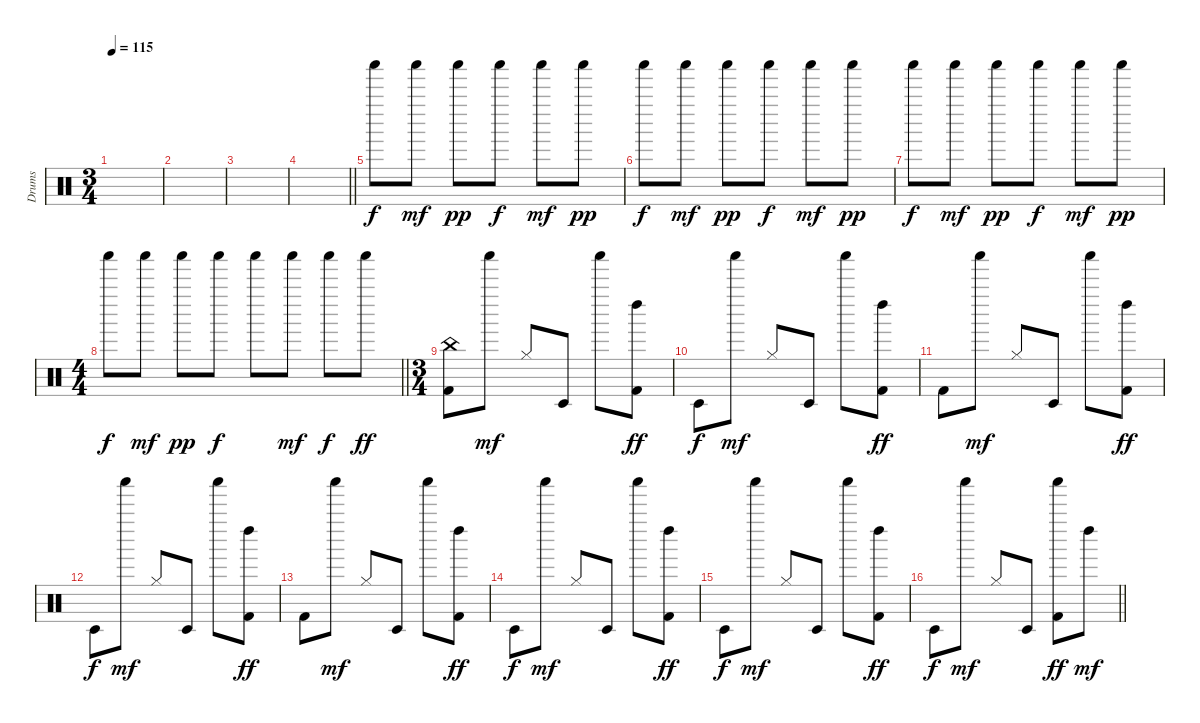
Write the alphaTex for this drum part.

\track ("Drums" "Drums") {instrument percussion}
\staff {score}
\articulation defaults
\ts (3 4)
\tempo 115
\clef neutral
\ks c
|
|
|
\barLineRight lightlight
|
\section ("" "")
"Shaker (hit)".8{dy f} "Shaker (hit)".8{dy mf} "Shaker (hit)".8{dy pp} "Shaker (hit)".8{dy f} "Shaker (hit)".8{dy mf} "Shaker (hit)".8{dy pp} |
"Shaker (hit)".8{dy f} "Shaker (hit)".8{dy mf} "Shaker (hit)".8{dy pp} "Shaker (hit)".8{dy f} "Shaker (hit)".8{dy mf} "Shaker (hit)".8{dy pp} |
"Shaker (hit)".8{dy f} "Shaker (hit)".8{dy mf} "Shaker (hit)".8{dy pp} "Shaker (hit)".8{dy f} "Shaker (hit)".8{dy mf} "Shaker (hit)".8{dy pp} |
\ts (4 4)
\barLineRight lightlight "Shaker (hit)".8{dy f} "Shaker (hit)".8{dy mf} "Shaker (hit)".8{dy pp} "Shaker (hit)".8{dy f} "Shaker (hit)".8 "Shaker (hit)".8{dy mf} "Shaker (hit)".8{dy f} "Shaker (hit)".8{dy ff}
|
\ts (3 4)
\section ("" "")
("China (hit)" "Kick (hit) 2").8 "Shaker (hit)".8{dy mf} "Hi-Hat (closed)".8 "Timbale low (hit)".8 "Shaker (hit)".8 ("Left Maraca (hit)" "Kick (hit) 2").8{dy ff} |
"Timbale low (hit)".8{dy f} "Shaker (hit)".8{dy mf} "Hi-Hat (closed)".8 "Timbale low (hit)".8 "Shaker (hit)".8 ("Left Maraca (hit)" "Kick (hit) 2").8{dy ff} |
"Kick (hit) 2".8 "Shaker (hit)".8{dy mf} "Hi-Hat (closed)".8 "Timbale low (hit)".8 "Shaker (hit)".8 ("Left Maraca (hit)" "Kick (hit) 2").8{dy ff} |
"Timbale low (hit)".8{dy f} "Shaker (hit)".8{dy mf} "Hi-Hat (closed)".8 "Timbale low (hit)".8 "Shaker (hit)".8 ("Left Maraca (hit)" "Kick (hit) 2").8{dy ff} |
"Kick (hit) 2".8 "Shaker (hit)".8{dy mf} "Hi-Hat (closed)".8 "Timbale low (hit)".8 "Shaker (hit)".8 ("Left Maraca (hit)" "Kick (hit) 2").8{dy ff} |
"Timbale low (hit)".8{dy f} "Shaker (hit)".8{dy mf} "Hi-Hat (closed)".8 "Timbale low (hit)".8 "Shaker (hit)".8 ("Left Maraca (hit)" "Kick (hit) 2").8{dy ff} |
"Timbale low (hit)".8{dy f} "Shaker (hit)".8{dy mf} "Hi-Hat (closed)".8 "Timbale low (hit)".8 "Shaker (hit)".8 ("Left Maraca (hit)" "Kick (hit) 2").8{dy ff} |
\barLineRight lightlight "Timbale low (hit)".8{dy f} "Shaker (hit)".8{dy mf} "Hi-Hat (closed)".8 "Timbale low (hit)".8
("Shaker (hit)" "Kick (hit) 2").8{dy ff} "Left Maraca (hit)".8{dy mf}
